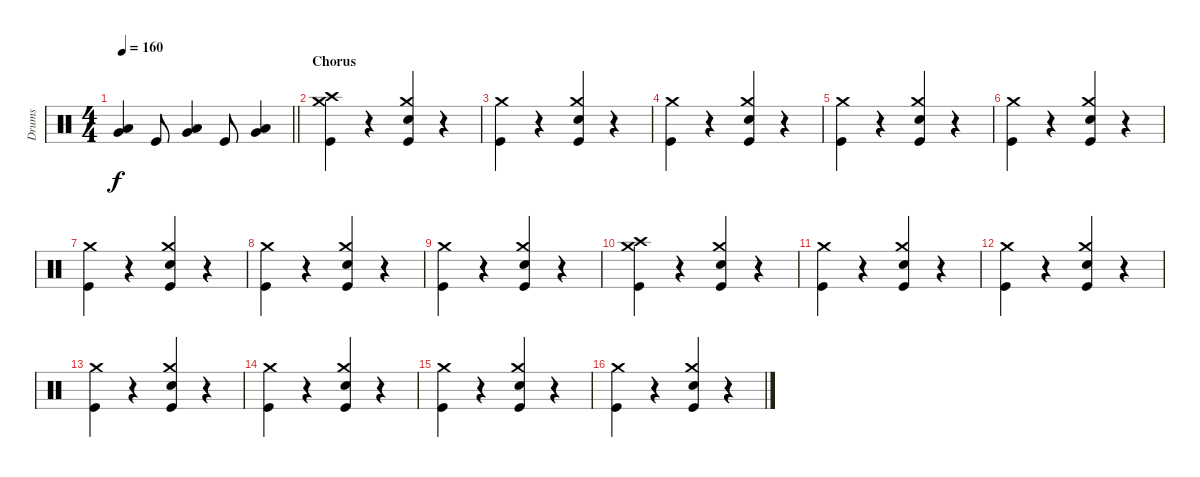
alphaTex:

\track ("Drums" "Drums") {instrument percussion}
\staff {score}
\articulation defaults
\ts (4 4)
\tempo 160
\clef neutral
\barLineRight lightlight
\ks c
("Very Low Tom (hit)" "Low Tom (hit)").4{dy f} "Kick (hit)".8 ("Very Low Tom (hit)" "Low Tom (hit)").4 "Kick (hit)".8 ("Very Low Tom (hit)" "Low Tom (hit)").4 |
\section ("" "Chorus")
("Kick (hit)" "Crash high (hit)" "Crash medium (hit)").4 r.4 ("Kick (hit)" "Electric Snare (hit)" "Crash medium (hit)").4 r.4 |
("Kick (hit)" "Crash medium (hit)").4 r.4 ("Kick (hit)" "Electric Snare (hit)" "Crash medium (hit)").4 r.4 |
("Kick (hit)" "Crash medium (hit)").4 r.4 ("Kick (hit)" "Electric Snare (hit)" "Crash medium (hit)").4 r.4 |
("Kick (hit)" "Crash medium (hit)").4 r.4 ("Kick (hit)" "Electric Snare (hit)" "Crash medium (hit)").4 r.4 |
("Kick (hit)" "Crash medium (hit)").4 r.4 ("Kick (hit)" "Electric Snare (hit)" "Crash medium (hit)").4 r.4 |
("Kick (hit)" "Crash medium (hit)").4 r.4 ("Kick (hit)" "Electric Snare (hit)" "Crash medium (hit)").4 r.4 |
("Kick (hit)" "Crash medium (hit)").4 r.4 ("Kick (hit)" "Electric Snare (hit)" "Crash medium (hit)").4 r.4 |
("Kick (hit)" "Crash medium (hit)").4 r.4 ("Kick (hit)" "Electric Snare (hit)" "Crash medium (hit)").4 r.4 |
("Kick (hit)" "Crash high (hit)" "Crash medium (hit)").4 r.4 ("Kick (hit)" "Electric Snare (hit)" "Crash medium (hit)").4 r.4 |
("Kick (hit)" "Crash medium (hit)").4 r.4 ("Kick (hit)" "Electric Snare (hit)" "Crash medium (hit)").4 r.4 |
("Kick (hit)" "Crash medium (hit)").4 r.4 ("Kick (hit)" "Electric Snare (hit)" "Crash medium (hit)").4 r.4 |
("Kick (hit)" "Crash medium (hit)").4 r.4 ("Kick (hit)" "Electric Snare (hit)" "Crash medium (hit)").4 r.4 |
("Kick (hit)" "Crash medium (hit)").4 r.4 ("Kick (hit)" "Electric Snare (hit)" "Crash medium (hit)").4 r.4 |
("Kick (hit)" "Crash medium (hit)").4 r.4 ("Kick (hit)" "Electric Snare (hit)" "Crash medium (hit)").4 r.4 |
("Kick (hit)" "Crash medium (hit)").4 r.4 ("Kick (hit)" "Electric Snare (hit)" "Crash medium (hit)").4 r.4
